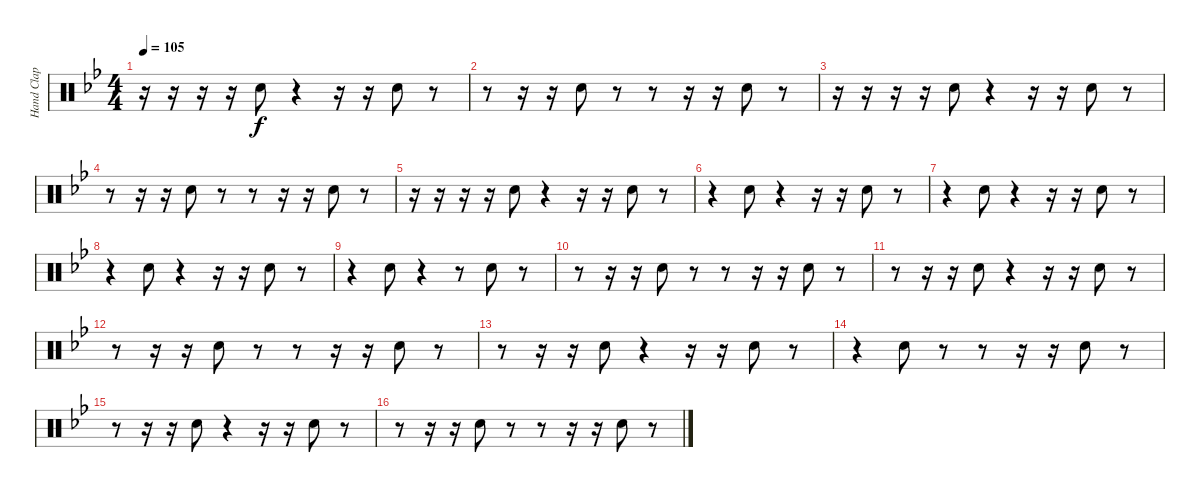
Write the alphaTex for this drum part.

\track ("Hand Clap" "Hand Clap") {instrument percussion}
\staff {score}
\articulation defaults
\ts (4 4)
\tempo 105
\clef neutral
\ks gminor
r.16{dy f} r.16 r.16 r.16 "Hand Clap (hit)".8 r.4 r.16 r.16 "Hand Clap (hit)".8 r.8 |
r.8 r.16 r.16 "Hand Clap (hit)".8 r.8 r.8 r.16 r.16 "Hand Clap (hit)".8 r.8 |
r.16 r.16 r.16 r.16 "Hand Clap (hit)".8 r.4 r.16 r.16 "Hand Clap (hit)".8 r.8 |
r.8 r.16 r.16 "Hand Clap (hit)".8 r.8 r.8 r.16 r.16 "Hand Clap (hit)".8 r.8 |
r.16 r.16 r.16 r.16 "Hand Clap (hit)".8 r.4 r.16 r.16 "Hand Clap (hit)".8 r.8 |
r.4 "Hand Clap (hit)".8 r.4 r.16 r.16 "Hand Clap (hit)".8 r.8 |
r.4 "Hand Clap (hit)".8 r.4 r.16 r.16 "Hand Clap (hit)".8 r.8 |
r.4 "Hand Clap (hit)".8 r.4 r.16 r.16 "Hand Clap (hit)".8 r.8 |
r.4 "Hand Clap (hit)".8 r.4 r.8 "Hand Clap (hit)".8 r.8 |
r.8 r.16 r.16 "Hand Clap (hit)".8 r.8 r.8 r.16 r.16 "Hand Clap (hit)".8 r.8 |
r.8 r.16 r.16 "Hand Clap (hit)".8 r.4 r.16 r.16 "Hand Clap (hit)".8 r.8 |
r.8 r.16 r.16 "Hand Clap (hit)".8 r.8 r.8 r.16 r.16 "Hand Clap (hit)".8 r.8 |
r.8 r.16 r.16 "Hand Clap (hit)".8 r.4 r.16 r.16 "Hand Clap (hit)".8 r.8 |
r.4 "Hand Clap (hit)".8 r.8 r.8 r.16 r.16 "Hand Clap (hit)".8 r.8 |
r.8 r.16 r.16 "Hand Clap (hit)".8 r.4 r.16 r.16 "Hand Clap (hit)".8 r.8 |
r.8 r.16 r.16 "Hand Clap (hit)".8 r.8 r.8 r.16 r.16 "Hand Clap (hit)".8 r.8
